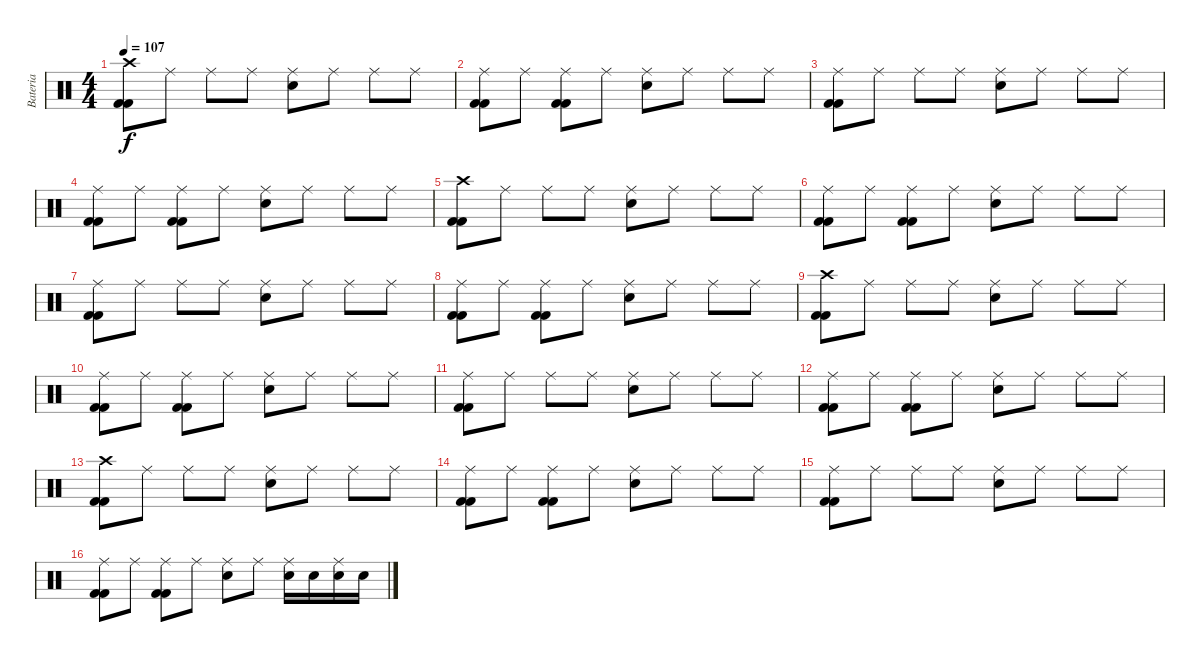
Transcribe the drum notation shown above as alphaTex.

\track ("Bateria" "Bateria") {instrument percussion}
\staff {score}
\articulation defaults
\ts (4 4)
\tempo 107
\clef neutral
\ks c
("Kick (hit) 2" "Kick (hit) 2" "Crash high (hit)").8{dy f} "Ride (middle)".8 "Ride (middle)".8 "Ride (middle)".8 ("Snare (hit) 2" "Ride (middle)").8 "Ride (middle)".8 "Ride (middle)".8 "Ride (middle)".8 |
("Kick (hit) 2" "Kick (hit) 2" "Ride (middle)").8 "Ride (middle)".8 ("Kick (hit) 2" "Kick (hit) 2" "Ride (middle)").8 "Ride (middle)".8 ("Snare (hit) 2" "Ride (middle)").8 "Ride (middle)".8 "Ride (middle)".8 "Ride (middle)".8 |
("Kick (hit) 2" "Kick (hit) 2" "Ride (middle)").8 "Ride (middle)".8 "Ride (middle)".8 "Ride (middle)".8 ("Snare (hit) 2" "Ride (middle)").8 "Ride (middle)".8 "Ride (middle)".8 "Ride (middle)".8 |
("Kick (hit) 2" "Kick (hit) 2" "Ride (middle)").8 "Ride (middle)".8 ("Kick (hit) 2" "Kick (hit) 2" "Ride (middle)").8 "Ride (middle)".8 ("Snare (hit) 2" "Ride (middle)").8 "Ride (middle)".8 "Ride (middle)".8 "Ride (middle)".8 |
("Kick (hit) 2" "Kick (hit) 2" "Crash high (hit)").8 "Ride (middle)".8 "Ride (middle)".8 "Ride (middle)".8 ("Snare (hit) 2" "Ride (middle)").8 "Ride (middle)".8 "Ride (middle)".8 "Ride (middle)".8 |
("Kick (hit) 2" "Kick (hit) 2" "Ride (middle)").8 "Ride (middle)".8 ("Kick (hit) 2" "Kick (hit) 2" "Ride (middle)").8 "Ride (middle)".8 ("Snare (hit) 2" "Ride (middle)").8 "Ride (middle)".8 "Ride (middle)".8 "Ride (middle)".8 |
("Kick (hit) 2" "Kick (hit) 2" "Ride (middle)").8 "Ride (middle)".8 "Ride (middle)".8 "Ride (middle)".8 ("Snare (hit) 2" "Ride (middle)").8 "Ride (middle)".8 "Ride (middle)".8 "Ride (middle)".8 |
("Kick (hit) 2" "Kick (hit) 2" "Ride (middle)").8 "Ride (middle)".8 ("Kick (hit) 2" "Kick (hit) 2" "Ride (middle)").8 "Ride (middle)".8 ("Snare (hit) 2" "Ride (middle)").8 "Ride (middle)".8 "Ride (middle)".8 "Ride (middle)".8 |
("Kick (hit) 2" "Kick (hit) 2" "Crash high (hit)").8 "Ride (middle)".8 "Ride (middle)".8 "Ride (middle)".8 ("Snare (hit) 2" "Ride (middle)").8 "Ride (middle)".8 "Ride (middle)".8 "Ride (middle)".8 |
("Kick (hit) 2" "Kick (hit) 2" "Ride (middle)").8 "Ride (middle)".8 ("Kick (hit) 2" "Kick (hit) 2" "Ride (middle)").8 "Ride (middle)".8 ("Snare (hit) 2" "Ride (middle)").8 "Ride (middle)".8 "Ride (middle)".8 "Ride (middle)".8 |
("Kick (hit) 2" "Kick (hit) 2" "Ride (middle)").8 "Ride (middle)".8 "Ride (middle)".8 "Ride (middle)".8 ("Snare (hit) 2" "Ride (middle)").8 "Ride (middle)".8 "Ride (middle)".8 "Ride (middle)".8 |
("Kick (hit) 2" "Kick (hit) 2" "Ride (middle)").8 "Ride (middle)".8 ("Kick (hit) 2" "Kick (hit) 2" "Ride (middle)").8 "Ride (middle)".8 ("Snare (hit) 2" "Ride (middle)").8 "Ride (middle)".8 "Ride (middle)".8 "Ride (middle)".8 |
("Kick (hit) 2" "Kick (hit) 2" "Crash high (hit)").8 "Ride (middle)".8 "Ride (middle)".8 "Ride (middle)".8 ("Snare (hit) 2" "Ride (middle)").8 "Ride (middle)".8 "Ride (middle)".8 "Ride (middle)".8 |
("Kick (hit) 2" "Kick (hit) 2" "Ride (middle)").8 "Ride (middle)".8 ("Kick (hit) 2" "Kick (hit) 2" "Ride (middle)").8 "Ride (middle)".8 ("Snare (hit) 2" "Ride (middle)").8 "Ride (middle)".8 "Ride (middle)".8 "Ride (middle)".8 |
("Kick (hit) 2" "Kick (hit) 2" "Ride (middle)").8 "Ride (middle)".8 "Ride (middle)".8 "Ride (middle)".8 ("Snare (hit) 2" "Ride (middle)").8 "Ride (middle)".8 "Ride (middle)".8 "Ride (middle)".8 |
("Kick (hit) 2" "Kick (hit) 2" "Ride (middle)").8 "Ride (middle)".8 ("Kick (hit) 2" "Kick (hit) 2" "Ride (middle)").8 "Ride (middle)".8 ("Snare (hit) 2" "Ride (middle)").8 "Ride (middle)".8 ("Snare (hit) 2" "Ride (middle)").16 "Snare (hit) 2".16 ("Snare (hit) 2" "Ride (middle)").16 "Snare (hit) 2".16
